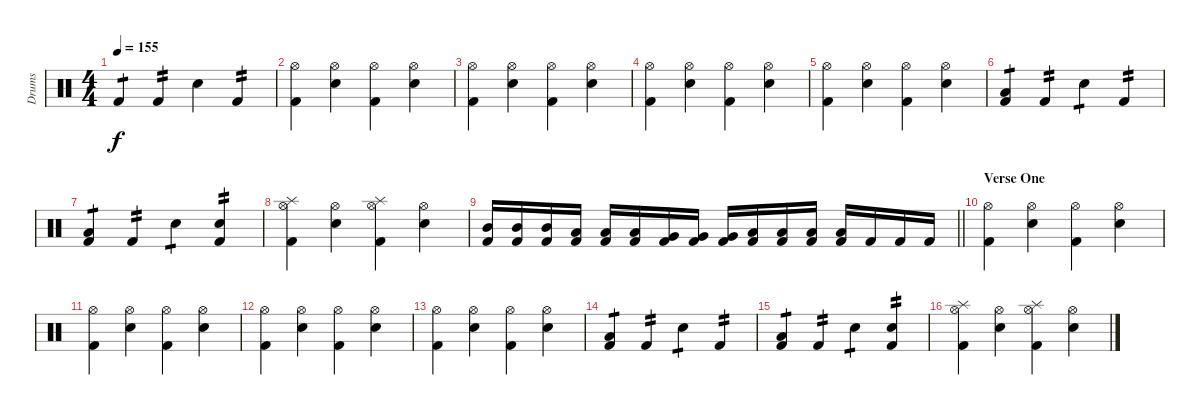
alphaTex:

\track ("Drums" "Drums") {instrument percussion}
\staff {score}
\articulation defaults
\ts (4 4)
\tempo 155
\clef neutral
\ks c "Kick (hit) 2".4{tp 1 dy f} "Kick (hit) 2".4{tp 2} "Snare (hit) 2".4 "Kick (hit) 2".4{tp 2}
|
("Hi-Hat (open)" "Kick (hit) 2").4 ("Hi-Hat (open)" "Snare (hit) 2").4 ("Hi-Hat (open)" "Kick (hit) 2").4 ("Hi-Hat (open)" "Snare (hit) 2").4 |
("Hi-Hat (open)" "Kick (hit) 2").4 ("Hi-Hat (open)" "Snare (hit) 2").4 ("Hi-Hat (open)" "Kick (hit) 2").4 ("Hi-Hat (open)" "Snare (hit) 2").4 |
("Hi-Hat (open)" "Kick (hit) 2").4 ("Hi-Hat (open)" "Snare (hit) 2").4 ("Hi-Hat (open)" "Kick (hit) 2").4 ("Hi-Hat (open)" "Snare (hit) 2").4 |
("Hi-Hat (open)" "Kick (hit) 2").4 ("Hi-Hat (open)" "Snare (hit) 2").4 ("Hi-Hat (open)" "Kick (hit) 2").4 ("Hi-Hat (open)" "Snare (hit) 2").4 |
("Kick (hit) 2" "Low Floor Tom (hit)").4{tp 1} "Kick (hit) 2".4{tp 2} "Snare (hit) 2".4{tp 1} "Kick (hit) 2".4{tp 2} |
("Kick (hit) 2" "Low Floor Tom (hit)").4{tp 1} "Kick (hit) 2".4{tp 2} "Snare (hit) 2".4{tp 1} ("Kick (hit) 2" "Snare (hit) 2").4{tp 2} |
("Hi-Hat (open)" "Kick (hit) 2" "Splash (hit)").4 ("Hi-Hat (open)" "Snare (hit) 2").4 ("Hi-Hat (open)" "Kick (hit) 2" "Splash (hit)").4 ("Hi-Hat (open)" "Snare (hit) 2").4 |
\barLineRight lightlight
("Kick (hit) 2" "Mid Tom (hit)").16 ("Kick (hit) 2" "Mid Tom (hit)").16 ("Kick (hit) 2" "Mid Tom (hit)").16 ("Kick (hit) 2" "Low Tom (hit)").16 ("Kick (hit) 2" "Low Tom (hit)").16 ("Kick (hit) 2" "Low Tom (hit)").16 ("Kick (hit) 2" "Very Low Tom (hit)").16 ("Kick (hit) 2" "Very Low Tom (hit)").16 ("Kick (hit) 2" "Very Low Tom (hit)").16 ("Kick (hit) 2" "Low Floor Tom (hit)").16 ("Kick (hit) 2" "Low Floor Tom (hit)").16 ("Kick (hit) 2" "Low Floor Tom (hit)").16 ("Kick (hit) 2" "Low Floor Tom (hit)").16 "Kick (hit) 2".16 "Kick (hit) 2".16 "Kick (hit) 2".16 |
\section ("" "Verse One")
("Hi-Hat (open)" "Kick (hit) 2").4 ("Hi-Hat (open)" "Snare (hit) 2").4 ("Hi-Hat (open)" "Kick (hit) 2").4 ("Hi-Hat (open)" "Snare (hit) 2").4 |
("Hi-Hat (open)" "Kick (hit) 2").4 ("Hi-Hat (open)" "Snare (hit) 2").4 ("Hi-Hat (open)" "Kick (hit) 2").4 ("Hi-Hat (open)" "Snare (hit) 2").4 |
("Hi-Hat (open)" "Kick (hit) 2").4 ("Hi-Hat (open)" "Snare (hit) 2").4 ("Hi-Hat (open)" "Kick (hit) 2").4 ("Hi-Hat (open)" "Snare (hit) 2").4 |
("Hi-Hat (open)" "Kick (hit) 2").4 ("Hi-Hat (open)" "Snare (hit) 2").4 ("Hi-Hat (open)" "Kick (hit) 2").4 ("Hi-Hat (open)" "Snare (hit) 2").4 |
("Kick (hit) 2" "Low Floor Tom (hit)").4{tp 1} "Kick (hit) 2".4{tp 2} "Snare (hit) 2".4{tp 1} "Kick (hit) 2".4{tp 2} |
("Kick (hit) 2" "Low Floor Tom (hit)").4{tp 1} "Kick (hit) 2".4{tp 2} "Snare (hit) 2".4{tp 1} ("Kick (hit) 2" "Snare (hit) 2").4{tp 2} |
("Hi-Hat (open)" "Kick (hit) 2" "Splash (hit)").4 ("Hi-Hat (open)" "Snare (hit) 2").4 ("Hi-Hat (open)" "Kick (hit) 2" "Splash (hit)").4 ("Hi-Hat (open)" "Snare (hit) 2").4
